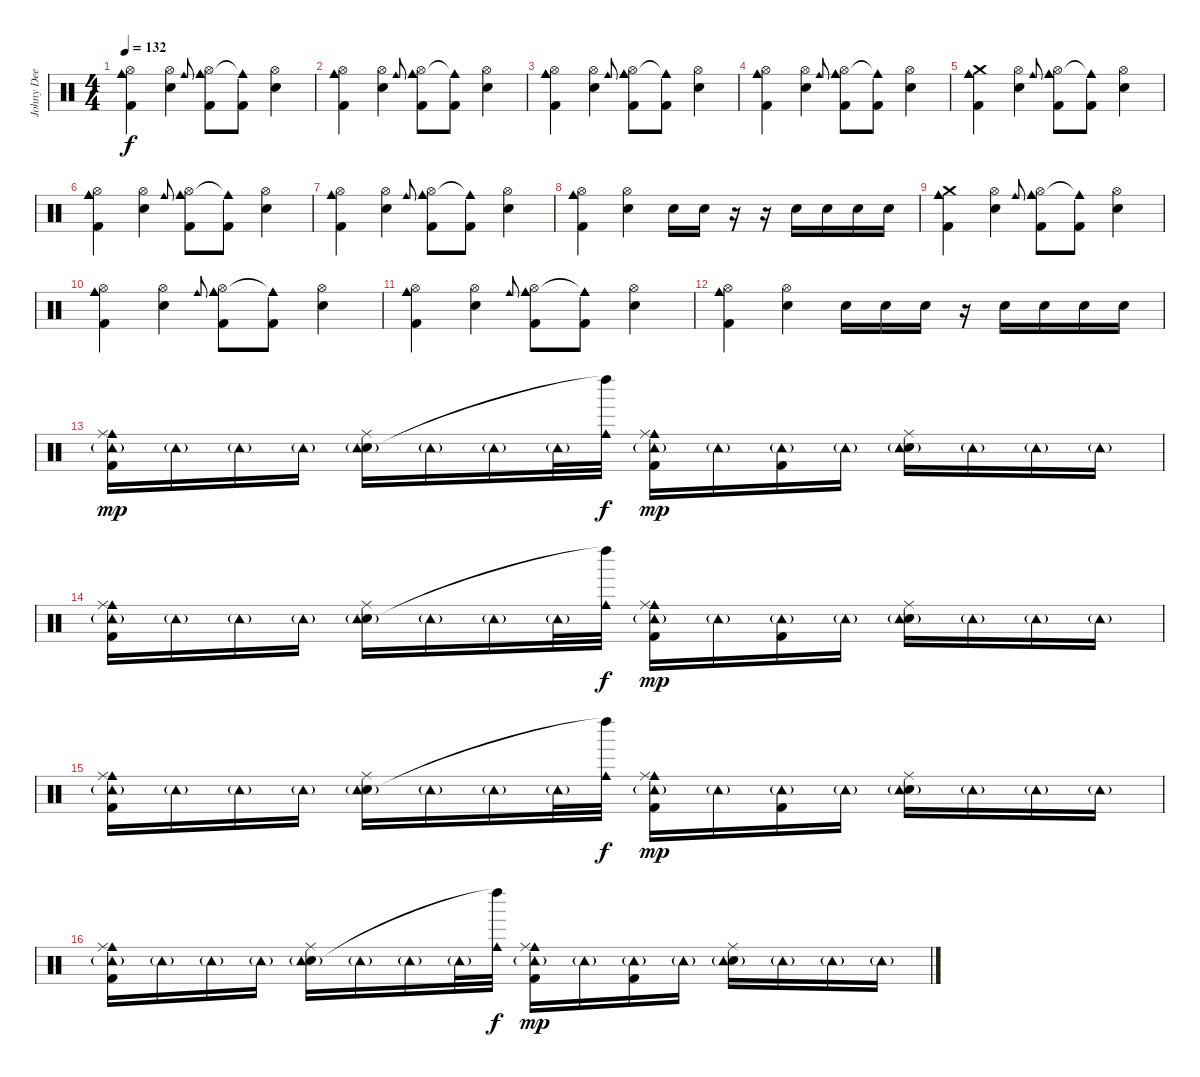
\track ("Johny Dee" "Johny Dee") {instrument percussion}
\staff {score}
\articulation defaults
\ts (4 4)
\tempo 132
\clef neutral
\ks c
("Cowbell medium (hit)" "Kick (hit) 2" "Hi-Hat (open)").4{dy f} ("Snare (hit) 2" "Hi-Hat (open)").4 "Cowbell medium (hit)".8{gr onbeat} ("Cowbell medium (hit)" "Kick (hit) 2" "Hi-Hat (open)").8 ("Cowbell medium (hit)"{t} "Kick (hit) 2").8 ("Snare (hit) 2" "Hi-Hat (open)").4 |
("Cowbell medium (hit)" "Kick (hit) 2" "Hi-Hat (open)").4 ("Snare (hit) 2" "Hi-Hat (open)").4 "Cowbell medium (hit)".8{gr onbeat} ("Cowbell medium (hit)" "Kick (hit) 2" "Hi-Hat (open)").8 ("Cowbell medium (hit)"{t} "Kick (hit) 2").8 ("Snare (hit) 2" "Hi-Hat (open)").4 |
("Cowbell medium (hit)" "Kick (hit) 2" "Hi-Hat (open)").4 ("Snare (hit) 2" "Hi-Hat (open)").4 "Cowbell medium (hit)".8{gr onbeat} ("Cowbell medium (hit)" "Kick (hit) 2" "Hi-Hat (open)").8 ("Cowbell medium (hit)"{t} "Kick (hit) 2").8 ("Snare (hit) 2" "Hi-Hat (open)").4 |
("Cowbell medium (hit)" "Kick (hit) 2" "Hi-Hat (open)").4 ("Snare (hit) 2" "Hi-Hat (open)").4 "Cowbell medium (hit)".8{gr onbeat} ("Cowbell medium (hit)" "Kick (hit) 2" "Hi-Hat (open)").8 ("Cowbell medium (hit)"{t} "Kick (hit) 2").8 ("Snare (hit) 2" "Hi-Hat (open)").4 |
("Cowbell medium (hit)" "Kick (hit) 2" "Crash medium (hit)").4 ("Snare (hit) 2" "Hi-Hat (open)").4 "Cowbell medium (hit)".8{gr onbeat} ("Cowbell medium (hit)" "Kick (hit) 2" "Hi-Hat (open)").8 ("Cowbell medium (hit)"{t} "Kick (hit) 2").8 ("Snare (hit) 2" "Hi-Hat (open)").4 |
("Cowbell medium (hit)" "Kick (hit) 2" "Hi-Hat (open)").4 ("Snare (hit) 2" "Hi-Hat (open)").4 "Cowbell medium (hit)".8{gr onbeat} ("Cowbell medium (hit)" "Kick (hit) 2" "Hi-Hat (open)").8 ("Cowbell medium (hit)"{t} "Kick (hit) 2").8 ("Snare (hit) 2" "Hi-Hat (open)").4 |
("Cowbell medium (hit)" "Kick (hit) 2" "Hi-Hat (open)").4 ("Snare (hit) 2" "Hi-Hat (open)").4 "Cowbell medium (hit)".8{gr onbeat} ("Cowbell medium (hit)" "Kick (hit) 2" "Hi-Hat (open)").8 ("Cowbell medium (hit)"{t} "Kick (hit) 2").8 ("Snare (hit) 2" "Hi-Hat (open)").4 |
("Cowbell medium (hit)" "Kick (hit) 2" "Hi-Hat (open)").4 ("Snare (hit) 2" "Hi-Hat (open)").4 "Snare (hit) 2".16 "Snare (hit) 2".16 r.16 r.16 "Snare (hit) 2".16 "Snare (hit) 2".16 "Snare (hit) 2".16 "Snare (hit) 2".16 |
("Cowbell medium (hit)" "Kick (hit) 2" "Crash medium (hit)").4 ("Snare (hit) 2" "Hi-Hat (open)").4 "Cowbell medium (hit)".8{gr onbeat} ("Cowbell medium (hit)" "Kick (hit) 2" "Hi-Hat (open)").8 ("Cowbell medium (hit)"{t} "Kick (hit) 2").8 ("Snare (hit) 2" "Hi-Hat (open)").4 |
("Cowbell medium (hit)" "Kick (hit) 2" "Hi-Hat (open)").4 ("Snare (hit) 2" "Hi-Hat (open)").4 "Cowbell medium (hit)".8{gr onbeat} ("Cowbell medium (hit)" "Kick (hit) 2" "Hi-Hat (open)").8 ("Cowbell medium (hit)"{t} "Kick (hit) 2").8 ("Snare (hit) 2" "Hi-Hat (open)").4 |
("Cowbell medium (hit)" "Kick (hit) 2" "Hi-Hat (open)").4 ("Snare (hit) 2" "Hi-Hat (open)").4 "Cowbell medium (hit)".8{gr onbeat} ("Cowbell medium (hit)" "Kick (hit) 2" "Hi-Hat (open)").8 ("Cowbell medium (hit)"{t} "Kick (hit) 2").8 ("Snare (hit) 2" "Hi-Hat (open)").4 |
("Cowbell medium (hit)" "Kick (hit) 2" "Hi-Hat (open)").4 ("Snare (hit) 2" "Hi-Hat (open)").4 "Snare (hit) 2".16 "Snare (hit) 2".16 "Snare (hit) 2".16 r.16 "Snare (hit) 2".16 "Snare (hit) 2".16 "Snare (hit) 2".16 "Snare (hit) 2".16 |
("Cowbell medium (hit)" "Ride (middle)" "Tambourine (hit)"{g} "Kick (hit) 2").16{dy mp} "Tambourine (hit)"{g}.16 "Tambourine (hit)"{g}.16 "Tambourine (hit)"{g}.16 ("Ride (middle)" "Snare (hit) 2" "Tambourine (hit)"{g}).16 "Tambourine (hit)"{g}.16 "Tambourine (hit)"{g}.16 "Tambourine (hit)"{g}.32 ("Cowbell medium (hit)" "Left Maraca (hit)"{t}).32{dy f} ("Cowbell medium (hit)" "Ride (middle)" "Tambourine (hit)"{g} "Kick (hit) 2").16{dy mp} "Tambourine (hit)"{g}.16 ("Tambourine (hit)"{g} "Kick (hit) 2").16 "Tambourine (hit)"{g}.16 ("Ride (middle)" "Snare (hit) 2" "Tambourine (hit)"{g}).16 "Tambourine (hit)"{g}.16 "Tambourine (hit)"{g}.16 "Tambourine (hit)"{g}.16 |
("Cowbell medium (hit)" "Ride (middle)" "Tambourine (hit)"{g} "Kick (hit) 2").16 "Tambourine (hit)"{g}.16 "Tambourine (hit)"{g}.16 "Tambourine (hit)"{g}.16 ("Ride (middle)" "Snare (hit) 2" "Tambourine (hit)"{g}).16 "Tambourine (hit)"{g}.16 "Tambourine (hit)"{g}.16 "Tambourine (hit)"{g}.32 ("Cowbell medium (hit)" "Left Maraca (hit)"{t}).32{dy f} ("Cowbell medium (hit)" "Ride (middle)" "Tambourine (hit)"{g} "Kick (hit) 2").16{dy mp} "Tambourine (hit)"{g}.16 ("Tambourine (hit)"{g} "Kick (hit) 2").16 "Tambourine (hit)"{g}.16 ("Ride (middle)" "Snare (hit) 2" "Tambourine (hit)"{g}).16 "Tambourine (hit)"{g}.16 "Tambourine (hit)"{g}.16 "Tambourine (hit)"{g}.16 |
("Cowbell medium (hit)" "Ride (middle)" "Tambourine (hit)"{g} "Kick (hit) 2").16 "Tambourine (hit)"{g}.16 "Tambourine (hit)"{g}.16 "Tambourine (hit)"{g}.16 ("Ride (middle)" "Snare (hit) 2" "Tambourine (hit)"{g}).16 "Tambourine (hit)"{g}.16 "Tambourine (hit)"{g}.16 "Tambourine (hit)"{g}.32 ("Cowbell medium (hit)" "Left Maraca (hit)"{t}).32{dy f} ("Cowbell medium (hit)" "Ride (middle)" "Tambourine (hit)"{g} "Kick (hit) 2").16{dy mp} "Tambourine (hit)"{g}.16 ("Tambourine (hit)"{g} "Kick (hit) 2").16 "Tambourine (hit)"{g}.16 ("Ride (middle)" "Snare (hit) 2" "Tambourine (hit)"{g}).16 "Tambourine (hit)"{g}.16 "Tambourine (hit)"{g}.16 "Tambourine (hit)"{g}.16 |
("Cowbell medium (hit)" "Ride (middle)" "Tambourine (hit)"{g} "Kick (hit) 2").16 "Tambourine (hit)"{g}.16 "Tambourine (hit)"{g}.16 "Tambourine (hit)"{g}.16 ("Ride (middle)" "Snare (hit) 2" "Tambourine (hit)"{g}).16 "Tambourine (hit)"{g}.16 "Tambourine (hit)"{g}.16 "Tambourine (hit)"{g}.32 ("Cowbell medium (hit)" "Left Maraca (hit)"{t}).32{dy f} ("Cowbell medium (hit)" "Ride (middle)" "Tambourine (hit)"{g} "Kick (hit) 2").16{dy mp} "Tambourine (hit)"{g}.16 ("Tambourine (hit)"{g} "Kick (hit) 2").16 "Tambourine (hit)"{g}.16 ("Ride (middle)" "Snare (hit) 2" "Tambourine (hit)"{g}).16 "Tambourine (hit)"{g}.16 "Tambourine (hit)"{g}.16 "Tambourine (hit)"{g}.16
